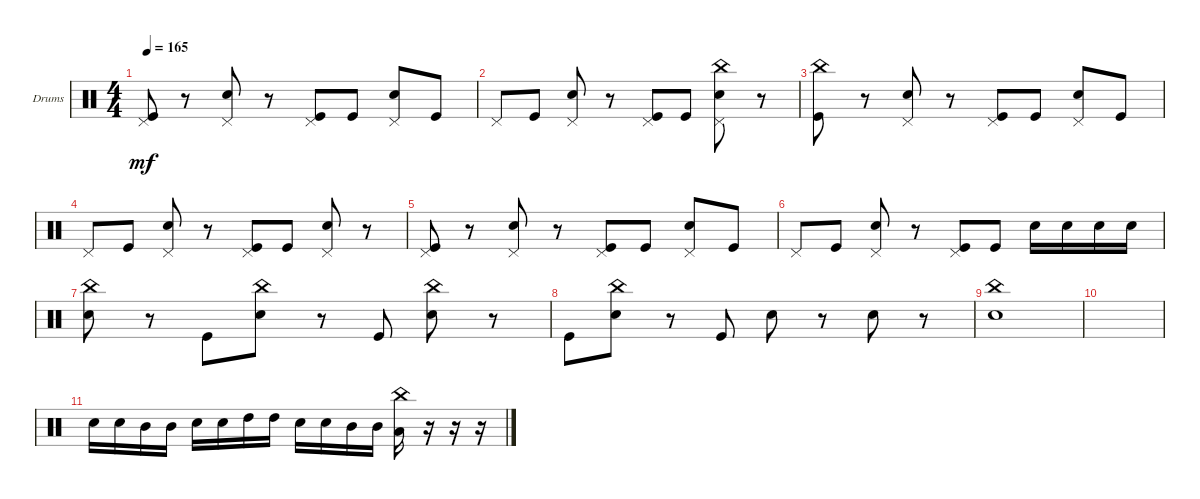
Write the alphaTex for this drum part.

\defaultSystemsLayout 4
\bracketExtendMode groupsimilarinstruments
\firstSystemTrackNameOrientation horizontal
\otherSystemsTrackNameOrientation horizontal
\track ("Drumkit" "Drums") {instrument percussion}
\staff {score}
\articulation defaults
\ts (4 4)
\tempo 165
\clef neutral
\ks c
("Kick (hit)" "Pedal Hi-Hat (hit)").8{dy mf} r.8 ("Snare (hit) 2" "Pedal Hi-Hat (hit)").8 r.8 ("Kick (hit)" "Pedal Hi-Hat (hit)").8 "Kick (hit)".8 ("Snare (hit) 2" "Pedal Hi-Hat (hit)").8 "Kick (hit)".8 |
"Pedal Hi-Hat (hit)".8 "Kick (hit)".8 ("Snare (hit) 2" "Pedal Hi-Hat (hit)").8 r.8 ("Kick (hit)" "Pedal Hi-Hat (hit)").8 "Kick (hit)".8 ("Snare (hit) 2" "Pedal Hi-Hat (hit)" "China (hit)").8 r.8 |
("Kick (hit)" "China (hit)").8 r.8 ("Snare (hit) 2" "Pedal Hi-Hat (hit)").8 r.8 ("Kick (hit)" "Pedal Hi-Hat (hit)").8 "Kick (hit)".8 ("Snare (hit) 2" "Pedal Hi-Hat (hit)").8 "Kick (hit)".8 |
"Pedal Hi-Hat (hit)".8 "Kick (hit)".8 ("Snare (hit) 2" "Pedal Hi-Hat (hit)").8 r.8 ("Kick (hit)" "Pedal Hi-Hat (hit)").8 "Kick (hit)".8 ("Snare (hit) 2" "Pedal Hi-Hat (hit)").8 r.8 |
("Kick (hit)" "Pedal Hi-Hat (hit)").8 r.8 ("Snare (hit) 2" "Pedal Hi-Hat (hit)").8 r.8 ("Kick (hit)" "Pedal Hi-Hat (hit)").8 "Kick (hit)".8 ("Snare (hit) 2" "Pedal Hi-Hat (hit)").8 "Kick (hit)".8 |
"Pedal Hi-Hat (hit)".8 "Kick (hit)".8 ("Snare (hit) 2" "Pedal Hi-Hat (hit)").8 r.8 ("Kick (hit)" "Pedal Hi-Hat (hit)").8 "Kick (hit)".8 "Snare (hit) 2".16 "Snare (hit) 2".16 "Snare (hit) 2".16 "Snare (hit) 2".16 |
("Snare (hit) 2" "China (hit)").8 r.8 "Kick (hit)".8 ("Snare (hit) 2" "China (hit)").8 r.8 "Kick (hit)".8 ("Snare (hit) 2" "China (hit)").8 r.8 |
"Kick (hit)".8 ("Snare (hit) 2" "China (hit)").8 r.8 "Kick (hit)".8 "Snare (hit) 2".8 r.8 "Snare (hit) 2".8 r.8 |
("Snare (hit) 2" "China (hit)").1 |
|
"Snare (hit) 2".16 "Snare (hit) 2".16 "Mid Tom (hit)".16 "Mid Tom (hit)".16 "Snare (hit) 2".16 "Snare (hit) 2".16 "High Tom (hit)".16 "High Tom (hit)".16 "Snare (hit) 2".16 "Snare (hit) 2".16 "Mid Tom (hit)".16 "Mid Tom (hit)".16 ("Low Tom (hit)" "China (hit)").16 r.16 r.16 r.16
